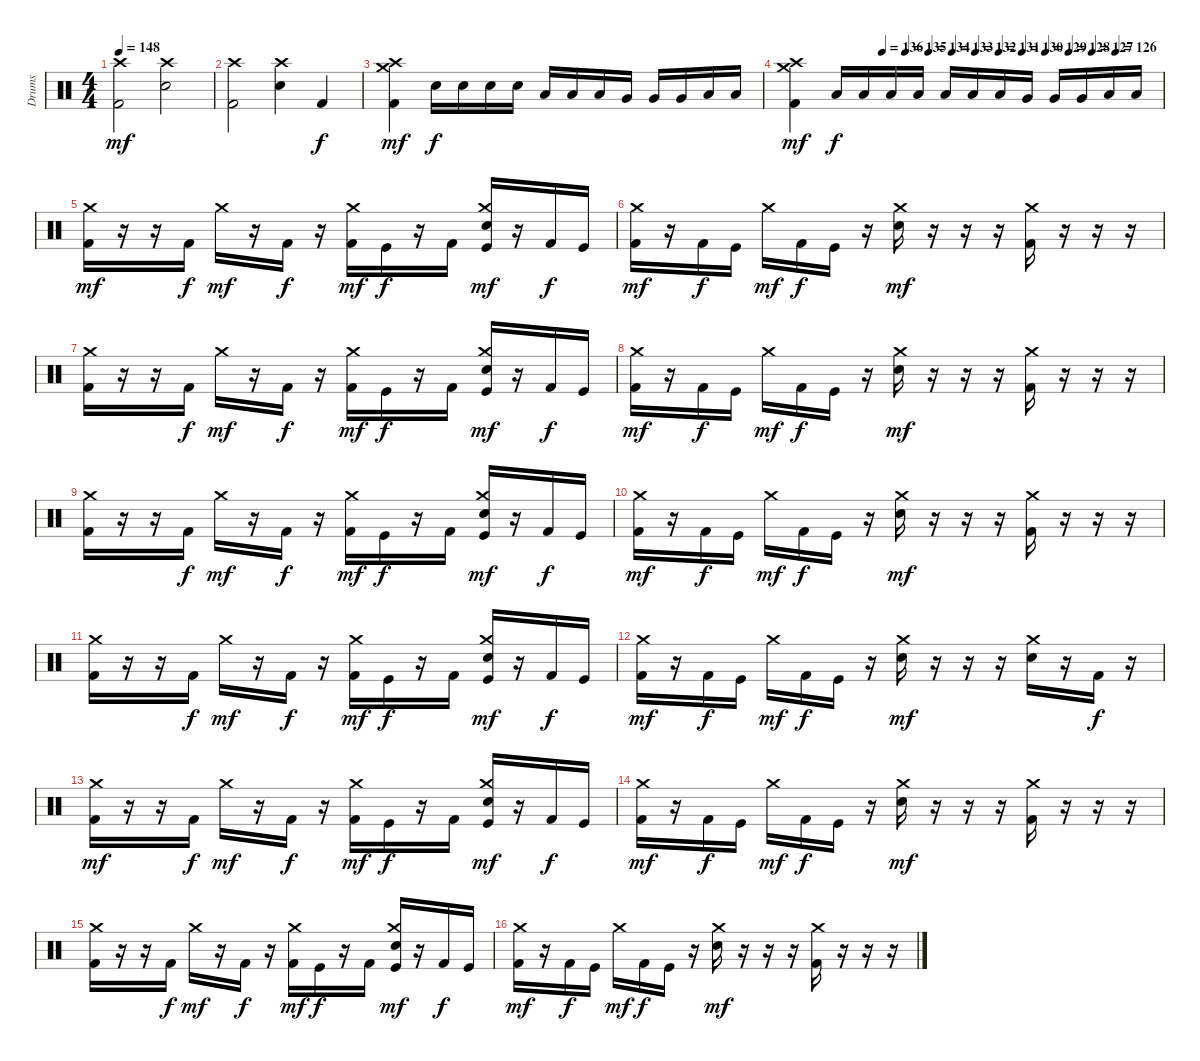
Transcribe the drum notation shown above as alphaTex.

\track ("Drums" "Drums") {instrument percussion}
\staff
\articulation defaults
\ts (4 4)
\tempo 148
\clef neutral
\ks c
("Crash high (hit)" "Kick (hit) 2").2{dy mf} ("Crash high (hit)" "Snare (hit) 2").2 |
("Crash high (hit)" "Kick (hit) 2").2 ("Crash high (hit)" "Snare (hit) 2").4 "Kick (hit) 2".4{dy f} |
("Crash medium (hit)" "Crash high (hit)" "Kick (hit) 2").4{dy mf} "Snare (hit) 2".16{dy f} "Snare (hit) 2".16 "Snare (hit) 2".16 "Snare (hit) 2".16 "Low Tom (hit)".16 "Low Tom (hit)".16 "Low Tom (hit)".16 "Very Low Tom (hit)".16 "Very Low Tom (hit)".16 "Very Low Tom (hit)".16 "Low Floor Tom (hit)".16 "Low Floor Tom (hit)".16 |
\tempo (136 0.25)
\tempo (135 0.3125)
\tempo (134 0.375)
\tempo (133 0.4375)
\tempo (132 0.5)
\tempo (131 0.5625)
\tempo (130 0.625)
\tempo (129 0.6875)
\tempo (128 0.75)
\tempo (127 0.8125)
\tempo (126 0.875)
("Crash medium (hit)" "Crash high (hit)" "Kick (hit) 2").4{dy mf} "Low Floor Tom (hit)".16{dy f} "Low Floor Tom (hit)".16 "Low Floor Tom (hit)".16 "Low Floor Tom (hit)".16 "Low Tom (hit)".16 "Low Tom (hit)".16 "Low Tom (hit)".16 "Very Low Tom (hit)".16 "Very Low Tom (hit)".16 "Very Low Tom (hit)".16 "Low Floor Tom (hit)".16 "Low Floor Tom (hit)".16 |
("Crash medium (hit)" "Kick (hit) 2").16{dy mf} r.16 r.16 "Kick (hit) 2".16{dy f} "Crash medium (hit)".16{dy mf} r.16 "Kick (hit) 2".16{dy f} r.16 ("Crash medium (hit)" "Kick (hit) 2").16{dy mf} "Kick (hit)".16{dy f} r.16 "Kick (hit) 2".16 ("Crash medium (hit)" "Snare (hit) 2" "Kick (hit)").16{dy mf} r.16 "Kick (hit) 2".16{dy f} "Kick (hit)".16 |
("Crash medium (hit)" "Kick (hit) 2").16{dy mf} r.16 "Kick (hit) 2".16{dy f} "Kick (hit)".16 "Crash medium (hit)".16{dy mf} "Kick (hit) 2".16{dy f} "Kick (hit)".16 r.16 ("Crash medium (hit)" "Snare (hit) 2").16{dy mf} r.16 r.16 r.16 ("Crash medium (hit)" "Kick (hit) 2").16 r.16 r.16 r.16 |
("Crash medium (hit)" "Kick (hit) 2").16 r.16 r.16 "Kick (hit) 2".16{dy f} "Crash medium (hit)".16{dy mf} r.16 "Kick (hit) 2".16{dy f} r.16 ("Crash medium (hit)" "Kick (hit) 2").16{dy mf} "Kick (hit)".16{dy f} r.16 "Kick (hit) 2".16 ("Crash medium (hit)" "Snare (hit) 2" "Kick (hit)").16{dy mf} r.16 "Kick (hit) 2".16{dy f} "Kick (hit)".16 |
("Crash medium (hit)" "Kick (hit) 2").16{dy mf} r.16 "Kick (hit) 2".16{dy f} "Kick (hit)".16 "Crash medium (hit)".16{dy mf} "Kick (hit) 2".16{dy f} "Kick (hit)".16 r.16 ("Crash medium (hit)" "Snare (hit) 2").16{dy mf} r.16 r.16 r.16 ("Crash medium (hit)" "Kick (hit) 2").16 r.16 r.16 r.16 |
("Crash medium (hit)" "Kick (hit) 2").16 r.16 r.16 "Kick (hit) 2".16{dy f} "Crash medium (hit)".16{dy mf} r.16 "Kick (hit) 2".16{dy f} r.16 ("Crash medium (hit)" "Kick (hit) 2").16{dy mf} "Kick (hit)".16{dy f} r.16 "Kick (hit) 2".16 ("Crash medium (hit)" "Snare (hit) 2" "Kick (hit)").16{dy mf} r.16 "Kick (hit) 2".16{dy f} "Kick (hit)".16 |
("Crash medium (hit)" "Kick (hit) 2").16{dy mf} r.16 "Kick (hit) 2".16{dy f} "Kick (hit)".16 "Crash medium (hit)".16{dy mf} "Kick (hit) 2".16{dy f} "Kick (hit)".16 r.16 ("Crash medium (hit)" "Snare (hit) 2").16{dy mf} r.16 r.16 r.16 ("Crash medium (hit)" "Kick (hit) 2").16 r.16 r.16 r.16 |
("Crash medium (hit)" "Kick (hit) 2").16 r.16 r.16 "Kick (hit) 2".16{dy f} "Crash medium (hit)".16{dy mf} r.16 "Kick (hit) 2".16{dy f} r.16 ("Crash medium (hit)" "Kick (hit) 2").16{dy mf} "Kick (hit)".16{dy f} r.16 "Kick (hit) 2".16 ("Crash medium (hit)" "Snare (hit) 2" "Kick (hit)").16{dy mf} r.16 "Kick (hit) 2".16{dy f} "Kick (hit)".16 |
("Crash medium (hit)" "Kick (hit) 2").16{dy mf} r.16 "Kick (hit) 2".16{dy f} "Kick (hit)".16 "Crash medium (hit)".16{dy mf} "Kick (hit) 2".16{dy f} "Kick (hit)".16 r.16 ("Crash medium (hit)" "Snare (hit) 2").16{dy mf} r.16 r.16 r.16 ("Crash medium (hit)" "Snare (hit) 2").16 r.16 "Kick (hit) 2".16{dy f} r.16 |
("Crash medium (hit)" "Kick (hit) 2").16{dy mf} r.16 r.16 "Kick (hit) 2".16{dy f} "Crash medium (hit)".16{dy mf} r.16 "Kick (hit) 2".16{dy f} r.16 ("Crash medium (hit)" "Kick (hit) 2").16{dy mf} "Kick (hit)".16{dy f} r.16 "Kick (hit) 2".16 ("Crash medium (hit)" "Snare (hit) 2" "Kick (hit)").16{dy mf} r.16 "Kick (hit) 2".16{dy f} "Kick (hit)".16 |
("Crash medium (hit)" "Kick (hit) 2").16{dy mf} r.16 "Kick (hit) 2".16{dy f} "Kick (hit)".16 "Crash medium (hit)".16{dy mf} "Kick (hit) 2".16{dy f} "Kick (hit)".16 r.16 ("Crash medium (hit)" "Snare (hit) 2").16{dy mf} r.16 r.16 r.16 ("Crash medium (hit)" "Kick (hit) 2").16 r.16 r.16 r.16 |
("Crash medium (hit)" "Kick (hit) 2").16 r.16 r.16 "Kick (hit) 2".16{dy f} "Crash medium (hit)".16{dy mf} r.16 "Kick (hit) 2".16{dy f} r.16 ("Crash medium (hit)" "Kick (hit) 2").16{dy mf} "Kick (hit)".16{dy f} r.16 "Kick (hit) 2".16 ("Crash medium (hit)" "Snare (hit) 2" "Kick (hit)").16{dy mf} r.16 "Kick (hit) 2".16{dy f} "Kick (hit)".16 |
("Crash medium (hit)" "Kick (hit) 2").16{dy mf} r.16 "Kick (hit) 2".16{dy f} "Kick (hit)".16 "Crash medium (hit)".16{dy mf} "Kick (hit) 2".16{dy f} "Kick (hit)".16 r.16 ("Crash medium (hit)" "Snare (hit) 2").16{dy mf} r.16 r.16 r.16 ("Crash medium (hit)" "Kick (hit) 2").16 r.16 r.16 r.16
